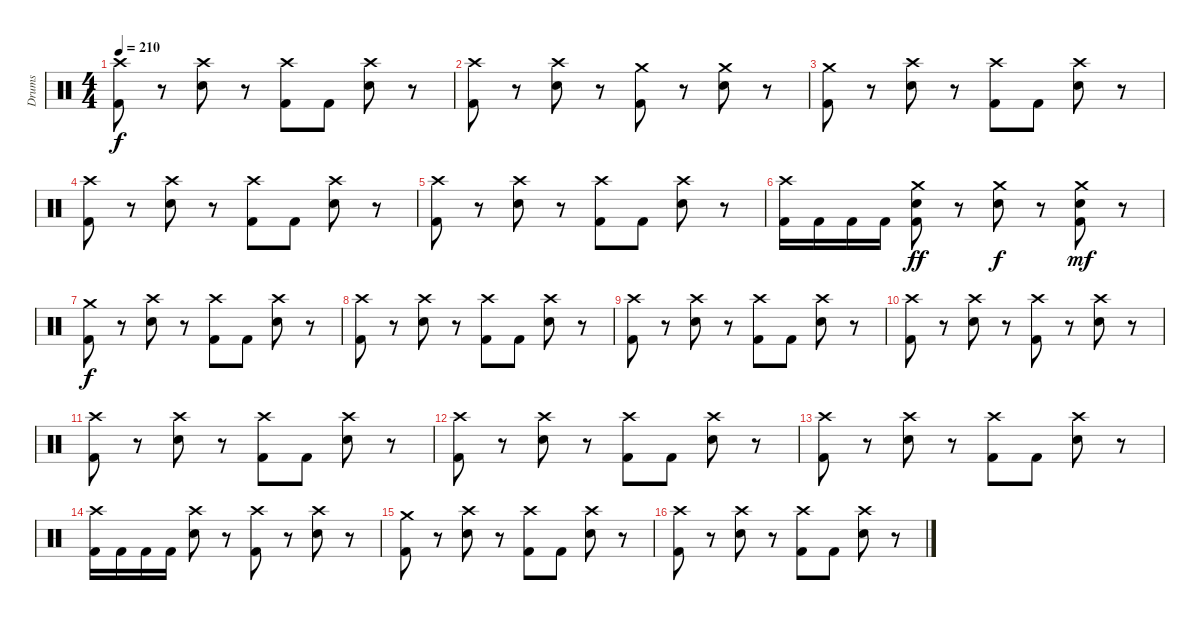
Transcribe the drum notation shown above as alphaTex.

\track ("Drums" "Drums") {instrument percussion}
\staff {score}
\articulation defaults
\ts (4 4)
\tempo 210
\clef neutral
\ks c
("Crash high (hit)" "Kick (hit) 2").8{dy f} r.8 ("Crash high (hit)" "Electric Snare (hit)").8 r.8 ("Crash high (hit)" "Kick (hit) 2").8 "Kick (hit) 2".8 ("Crash high (hit)" "Electric Snare (hit)").8 r.8 |
("Crash high (hit)" "Kick (hit) 2").8 r.8 ("Crash high (hit)" "Electric Snare (hit)").8 r.8 ("Crash medium (hit)" "Kick (hit) 2").8 r.8 ("Crash medium (hit)" "Electric Snare (hit)").8 r.8 |
("Crash medium (hit)" "Kick (hit) 2").8 r.8 ("Crash high (hit)" "Electric Snare (hit)").8 r.8 ("Crash high (hit)" "Kick (hit) 2").8 "Kick (hit) 2".8 ("Crash high (hit)" "Electric Snare (hit)").8 r.8 |
("Crash high (hit)" "Kick (hit) 2").8 r.8 ("Crash high (hit)" "Electric Snare (hit)").8 r.8 ("Crash high (hit)" "Kick (hit) 2").8 "Kick (hit) 2".8 ("Crash high (hit)" "Electric Snare (hit)").8 r.8 |
("Crash high (hit)" "Kick (hit) 2").8 r.8 ("Crash high (hit)" "Electric Snare (hit)").8 r.8 ("Crash high (hit)" "Kick (hit) 2").8 "Kick (hit) 2".8 ("Crash high (hit)" "Electric Snare (hit)").8 r.8 |
("Crash high (hit)" "Kick (hit) 2").16 "Kick (hit) 2".16 "Kick (hit) 2".16 "Kick (hit) 2".16 ("Crash medium (hit)" "Electric Snare (hit)" "Kick (hit) 2").8{dy ff} r.8 ("Crash medium (hit)" "Electric Snare (hit)").8{dy f} r.8 ("Crash medium (hit)" "Electric Snare (hit)" "Kick (hit) 2").8{dy mf} r.8 |
("Crash medium (hit)" "Kick (hit) 2").8{dy f} r.8 ("Crash high (hit)" "Electric Snare (hit)").8 r.8 ("Crash high (hit)" "Kick (hit) 2").8 "Kick (hit) 2".8 ("Crash high (hit)" "Electric Snare (hit)").8 r.8 |
("Crash high (hit)" "Kick (hit) 2").8 r.8 ("Crash high (hit)" "Electric Snare (hit)").8 r.8 ("Crash high (hit)" "Kick (hit) 2").8 "Kick (hit) 2".8 ("Crash high (hit)" "Electric Snare (hit)").8 r.8 |
("Crash high (hit)" "Kick (hit) 2").8 r.8 ("Crash high (hit)" "Electric Snare (hit)").8 r.8 ("Crash high (hit)" "Kick (hit) 2").8 "Kick (hit) 2".8 ("Crash high (hit)" "Electric Snare (hit)").8 r.8 |
("Crash high (hit)" "Kick (hit) 2").8 r.8 ("Crash high (hit)" "Electric Snare (hit)").8 r.8 ("Crash high (hit)" "Kick (hit) 2").8 r.8 ("Crash high (hit)" "Electric Snare (hit)").8 r.8 |
("Crash high (hit)" "Kick (hit) 2").8 r.8 ("Crash high (hit)" "Electric Snare (hit)").8 r.8 ("Crash high (hit)" "Kick (hit) 2").8 "Kick (hit) 2".8 ("Crash high (hit)" "Electric Snare (hit)").8 r.8 |
("Crash high (hit)" "Kick (hit) 2").8 r.8 ("Crash high (hit)" "Electric Snare (hit)").8 r.8 ("Crash high (hit)" "Kick (hit) 2").8 "Kick (hit) 2".8 ("Crash high (hit)" "Electric Snare (hit)").8 r.8 |
("Crash high (hit)" "Kick (hit) 2").8 r.8 ("Crash high (hit)" "Electric Snare (hit)").8 r.8 ("Crash high (hit)" "Kick (hit) 2").8 "Kick (hit) 2".8 ("Crash high (hit)" "Electric Snare (hit)").8 r.8 |
("Crash high (hit)" "Kick (hit) 2").16 "Kick (hit) 2".16 "Kick (hit) 2".16 "Kick (hit) 2".16 ("Crash high (hit)" "Electric Snare (hit)").8 r.8 ("Crash high (hit)" "Kick (hit) 2").8 r.8 ("Crash high (hit)" "Electric Snare (hit)").8 r.8 |
("Crash medium (hit)" "Kick (hit) 2").8 r.8 ("Crash high (hit)" "Electric Snare (hit)").8 r.8 ("Crash high (hit)" "Kick (hit) 2").8 "Kick (hit) 2".8 ("Crash high (hit)" "Electric Snare (hit)").8 r.8 |
("Crash high (hit)" "Kick (hit) 2").8 r.8 ("Crash high (hit)" "Electric Snare (hit)").8 r.8 ("Crash high (hit)" "Kick (hit) 2").8 "Kick (hit) 2".8 ("Crash high (hit)" "Electric Snare (hit)").8 r.8
